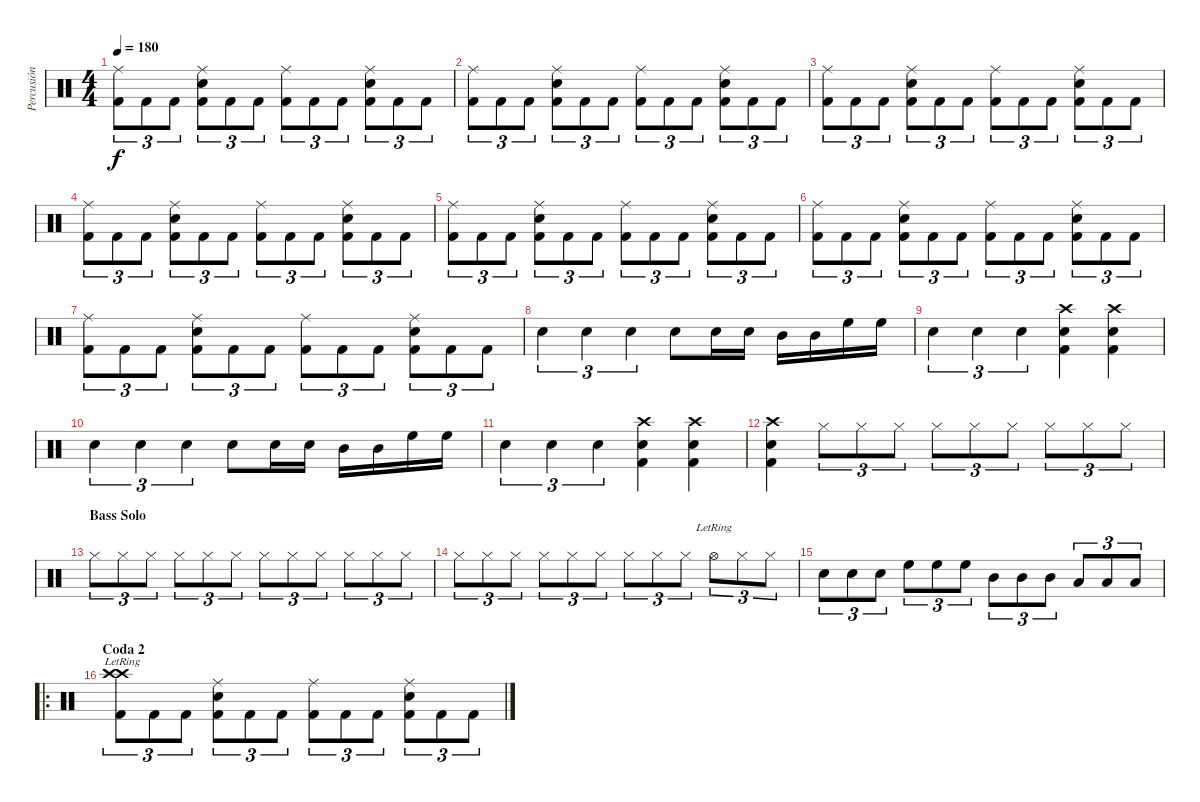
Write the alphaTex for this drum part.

\track ("Percusión" "Percusión") {instrument percussion}
\staff {score}
\articulation defaults
\ts (4 4)
\tempo 180
\clef neutral
\ks c
("Ride (middle)" "Kick (hit) 2").8{tu (3 2) dy f} "Kick (hit) 2".8{tu (3 2)} "Kick (hit) 2".8{tu (3 2)} ("Ride (middle)" "Snare (hit) 2" "Kick (hit) 2").8{tu (3 2)} "Kick (hit) 2".8{tu (3 2)} "Kick (hit) 2".8{tu (3 2)} ("Ride (middle)" "Kick (hit) 2").8{tu (3 2)} "Kick (hit) 2".8{tu (3 2)} "Kick (hit) 2".8{tu (3 2)} ("Ride (middle)" "Snare (hit) 2" "Kick (hit) 2").8{tu (3 2)} "Kick (hit) 2".8{tu (3 2)} "Kick (hit) 2".8{tu (3 2)} |
("Ride (middle)" "Kick (hit) 2").8{tu (3 2)} "Kick (hit) 2".8{tu (3 2)} "Kick (hit) 2".8{tu (3 2)} ("Ride (middle)" "Snare (hit) 2" "Kick (hit) 2").8{tu (3 2)} "Kick (hit) 2".8{tu (3 2)} "Kick (hit) 2".8{tu (3 2)} ("Ride (middle)" "Kick (hit) 2").8{tu (3 2)} "Kick (hit) 2".8{tu (3 2)} "Kick (hit) 2".8{tu (3 2)} ("Ride (middle)" "Snare (hit) 2" "Kick (hit) 2").8{tu (3 2)} "Kick (hit) 2".8{tu (3 2)} "Kick (hit) 2".8{tu (3 2)} |
("Ride (middle)" "Kick (hit) 2").8{tu (3 2)} "Kick (hit) 2".8{tu (3 2)} "Kick (hit) 2".8{tu (3 2)} ("Ride (middle)" "Snare (hit) 2" "Kick (hit) 2").8{tu (3 2)} "Kick (hit) 2".8{tu (3 2)} "Kick (hit) 2".8{tu (3 2)} ("Ride (middle)" "Kick (hit) 2").8{tu (3 2)} "Kick (hit) 2".8{tu (3 2)} "Kick (hit) 2".8{tu (3 2)} ("Ride (middle)" "Snare (hit) 2" "Kick (hit) 2").8{tu (3 2)} "Kick (hit) 2".8{tu (3 2)} "Kick (hit) 2".8{tu (3 2)} |
("Ride (middle)" "Kick (hit) 2").8{tu (3 2)} "Kick (hit) 2".8{tu (3 2)} "Kick (hit) 2".8{tu (3 2)} ("Ride (middle)" "Snare (hit) 2" "Kick (hit) 2").8{tu (3 2)} "Kick (hit) 2".8{tu (3 2)} "Kick (hit) 2".8{tu (3 2)} ("Ride (middle)" "Kick (hit) 2").8{tu (3 2)} "Kick (hit) 2".8{tu (3 2)} "Kick (hit) 2".8{tu (3 2)} ("Ride (middle)" "Snare (hit) 2" "Kick (hit) 2").8{tu (3 2)} "Kick (hit) 2".8{tu (3 2)} "Kick (hit) 2".8{tu (3 2)} |
("Ride (middle)" "Kick (hit) 2").8{tu (3 2)} "Kick (hit) 2".8{tu (3 2)} "Kick (hit) 2".8{tu (3 2)} ("Ride (middle)" "Snare (hit) 2" "Kick (hit) 2").8{tu (3 2)} "Kick (hit) 2".8{tu (3 2)} "Kick (hit) 2".8{tu (3 2)} ("Ride (middle)" "Kick (hit) 2").8{tu (3 2)} "Kick (hit) 2".8{tu (3 2)} "Kick (hit) 2".8{tu (3 2)} ("Ride (middle)" "Snare (hit) 2" "Kick (hit) 2").8{tu (3 2)} "Kick (hit) 2".8{tu (3 2)} "Kick (hit) 2".8{tu (3 2)} |
("Ride (middle)" "Kick (hit) 2").8{tu (3 2)} "Kick (hit) 2".8{tu (3 2)} "Kick (hit) 2".8{tu (3 2)} ("Ride (middle)" "Snare (hit) 2" "Kick (hit) 2").8{tu (3 2)} "Kick (hit) 2".8{tu (3 2)} "Kick (hit) 2".8{tu (3 2)} ("Ride (middle)" "Kick (hit) 2").8{tu (3 2)} "Kick (hit) 2".8{tu (3 2)} "Kick (hit) 2".8{tu (3 2)} ("Ride (middle)" "Snare (hit) 2" "Kick (hit) 2").8{tu (3 2)} "Kick (hit) 2".8{tu (3 2)} "Kick (hit) 2".8{tu (3 2)} |
("Ride (middle)" "Kick (hit) 2").8{tu (3 2)} "Kick (hit) 2".8{tu (3 2)} "Kick (hit) 2".8{tu (3 2)} ("Ride (middle)" "Snare (hit) 2" "Kick (hit) 2").8{tu (3 2)} "Kick (hit) 2".8{tu (3 2)} "Kick (hit) 2".8{tu (3 2)} ("Ride (middle)" "Kick (hit) 2").8{tu (3 2)} "Kick (hit) 2".8{tu (3 2)} "Kick (hit) 2".8{tu (3 2)} ("Ride (middle)" "Snare (hit) 2" "Kick (hit) 2").8{tu (3 2)} "Kick (hit) 2".8{tu (3 2)} "Kick (hit) 2".8{tu (3 2)} |
"Snare (hit) 2".4{tu (3 2)} "Snare (hit) 2".4{tu (3 2)} "Snare (hit) 2".4{tu (3 2)} "Snare (hit) 2".8 "Snare (hit) 2".16 "Snare (hit) 2".16 "Mid Tom (hit)".16 "Mid Tom (hit)".16 "High Floor Tom (hit)".16 "High Floor Tom (hit)".16 |
"Snare (hit) 2".4{tu (3 2)} "Snare (hit) 2".4{tu (3 2)} "Snare (hit) 2".4{tu (3 2)} ("Snare (hit) 2" "Crash high (hit)" "Kick (hit) 2").4 ("Snare (hit) 2" "Crash high (hit)" "Kick (hit) 2").4 |
"Snare (hit) 2".4{tu (3 2)} "Snare (hit) 2".4{tu (3 2)} "Snare (hit) 2".4{tu (3 2)} "Snare (hit) 2".8 "Snare (hit) 2".16 "Snare (hit) 2".16 "Mid Tom (hit)".16 "Mid Tom (hit)".16 "High Floor Tom (hit)".16 "High Floor Tom (hit)".16 |
"Snare (hit) 2".4{tu (3 2)} "Snare (hit) 2".4{tu (3 2)} "Snare (hit) 2".4{tu (3 2)} ("Snare (hit) 2" "Crash high (hit)" "Kick (hit) 2").4 ("Snare (hit) 2" "Crash high (hit)" "Kick (hit) 2").4 |
("Snare (hit) 2" "Crash high (hit)" "Kick (hit) 2").4 "Hi-Hat (closed)".8{tu (3 2)} "Hi-Hat (closed)".8{tu (3 2)} "Hi-Hat (closed)".8{tu (3 2)} "Hi-Hat (closed)".8{tu (3 2)} "Hi-Hat (closed)".8{tu (3 2)} "Hi-Hat (closed)".8{tu (3 2)} "Hi-Hat (closed)".8{tu (3 2)} "Hi-Hat (closed)".8{tu (3 2)} "Hi-Hat (closed)".8{tu (3 2)} |
\section ("" "Bass Solo")
"Hi-Hat (closed)".8{tu (3 2)} "Hi-Hat (closed)".8{tu (3 2)} "Hi-Hat (closed)".8{tu (3 2)} "Hi-Hat (closed)".8{tu (3 2)} "Hi-Hat (closed)".8{tu (3 2)} "Hi-Hat (closed)".8{tu (3 2)} "Hi-Hat (closed)".8{tu (3 2)} "Hi-Hat (closed)".8{tu (3 2)} "Hi-Hat (closed)".8{tu (3 2)} "Hi-Hat (closed)".8{tu (3 2)} "Hi-Hat (closed)".8{tu (3 2)} "Hi-Hat (closed)".8{tu (3 2)} |
"Hi-Hat (closed)".8{tu (3 2)} "Hi-Hat (closed)".8{tu (3 2)} "Hi-Hat (closed)".8{tu (3 2)} "Hi-Hat (closed)".8{tu (3 2)} "Hi-Hat (closed)".8{tu (3 2)} "Hi-Hat (closed)".8{tu (3 2)} "Hi-Hat (closed)".8{tu (3 2)} "Hi-Hat (closed)".8{tu (3 2)} "Hi-Hat (closed)".8{tu (3 2)} "Hi-Hat (open)"{lr}.8{tu (3 2)} "Hi-Hat (closed)".8{tu (3 2)} "Hi-Hat (closed)".8{tu (3 2)} |
"Electric Snare (hit)".8{tu (3 2)} "Electric Snare (hit)".8{tu (3 2)} "Electric Snare (hit)".8{tu (3 2)} "High Floor Tom (hit)".8{tu (3 2)} "High Floor Tom (hit)".8{tu (3 2)} "High Floor Tom (hit)".8{tu (3 2)} "Mid Tom (hit)".8{tu (3 2)} "Mid Tom (hit)".8{tu (3 2)} "Mid Tom (hit)".8{tu (3 2)} "Low Floor Tom (hit)".8{tu (3 2)} "Low Floor Tom (hit)".8{tu (3 2)} "Low Floor Tom (hit)".8{tu (3 2)} |
\ro
\section ("" "Coda 2")
("Crash high (hit)"{lr} "Crash high (hit)"{lr} "Kick (hit) 2").8{tu (3 2)} "Kick (hit) 2".8{tu (3 2)} "Kick (hit) 2".8{tu (3 2)} ("Ride (middle)" "Snare (hit) 2" "Kick (hit) 2").8{tu (3 2)} "Kick (hit) 2".8{tu (3 2)} "Kick (hit) 2".8{tu (3 2)} ("Ride (middle)" "Kick (hit) 2").8{tu (3 2)} "Kick (hit) 2".8{tu (3 2)} "Kick (hit) 2".8{tu (3 2)} ("Ride (middle)" "Snare (hit) 2" "Kick (hit) 2").8{tu (3 2)} "Kick (hit) 2".8{tu (3 2)} "Kick (hit) 2".8{tu (3 2)}
